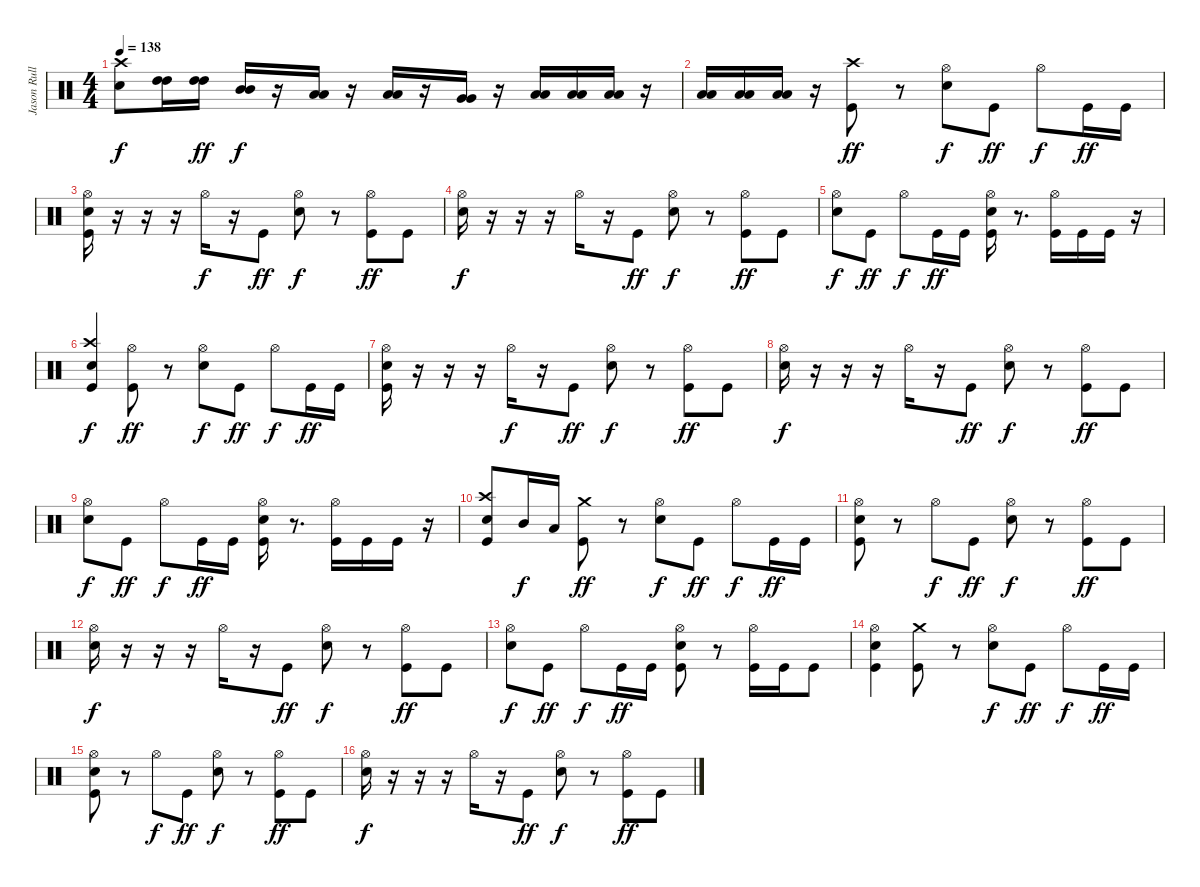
\track ("Jason Rullo" "Jason Rull") {instrument percussion}
\staff {score}
\articulation defaults
\ts (4 4)
\tempo 138
\clef neutral
\ks c
("Snare (hit) 2" "Crash high (hit)").8{dy f} ("High Tom (hit)" "High Tom (hit)").16 ("High Tom (hit)" "High Tom (hit)").16{dy ff} ("Mid Tom (hit)" "Mid Tom (hit)").16{dy f} r.16 ("Low Tom (hit)" "Low Tom (hit)").16 r.16 ("Low Tom (hit)" "Low Tom (hit)").16 r.16 ("Very Low Tom (hit)" "Very Low Tom (hit)").16 r.16 ("Low Tom (hit)" "Low Tom (hit)").16 ("Low Tom (hit)" "Low Tom (hit)").16 ("Low Tom (hit)" "Low Tom (hit)").16 r.16 |
("Low Tom (hit)" "Low Tom (hit)").16 ("Low Tom (hit)" "Low Tom (hit)").16 ("Low Tom (hit)" "Low Tom (hit)").16 r.16 ("Kick (hit)" "Crash high (hit)").8{dy ff} r.8 ("Snare (hit) 2" "Hi-Hat (open)").8{dy f} "Kick (hit)".8{dy ff} "Hi-Hat (open)".8{dy f} "Kick (hit)".16{dy ff} "Kick (hit)".16 |
("Kick (hit)" "Snare (hit) 2" "Hi-Hat (open)").16 r.16 r.16 r.16 "Hi-Hat (open)".16{dy f} r.16 "Kick (hit)".8{dy ff} ("Snare (hit) 2" "Hi-Hat (open)").8{dy f} r.8 ("Kick (hit)" "Hi-Hat (open)").8{dy ff} "Kick (hit)".8 |
("Snare (hit) 2" "Hi-Hat (open)").16{dy f} r.16 r.16 r.16 "Hi-Hat (open)".16 r.16 "Kick (hit)".8{dy ff} ("Snare (hit) 2" "Hi-Hat (open)").8{dy f} r.8 ("Kick (hit)" "Hi-Hat (open)").8{dy ff} "Kick (hit)".8 |
("Snare (hit) 2" "Hi-Hat (open)").8{dy f} "Kick (hit)".8{dy ff} "Hi-Hat (open)".8{dy f} "Kick (hit)".16{dy ff} "Kick (hit)".16 ("Kick (hit)" "Snare (hit) 2" "Hi-Hat (open)").16 r.8{d} ("Kick (hit)" "Hi-Hat (open)").16 "Kick (hit)".16 "Kick (hit)".16 r.16 |
("Kick (hit)" "Snare (hit) 2" "Crash high (hit)").4{dy f} ("Kick (hit)" "Hi-Hat (open)").8{dy ff} r.8 ("Snare (hit) 2" "Hi-Hat (open)").8{dy f} "Kick (hit)".8{dy ff} "Hi-Hat (open)".8{dy f} "Kick (hit)".16{dy ff} "Kick (hit)".16 |
("Kick (hit)" "Snare (hit) 2" "Hi-Hat (open)").16 r.16 r.16 r.16 "Hi-Hat (open)".16{dy f} r.16 "Kick (hit)".8{dy ff} ("Snare (hit) 2" "Hi-Hat (open)").8{dy f} r.8 ("Kick (hit)" "Hi-Hat (open)").8{dy ff} "Kick (hit)".8 |
("Snare (hit) 2" "Hi-Hat (open)").16{dy f} r.16 r.16 r.16 "Hi-Hat (open)".16 r.16 "Kick (hit)".8{dy ff} ("Snare (hit) 2" "Hi-Hat (open)").8{dy f} r.8 ("Kick (hit)" "Hi-Hat (open)").8{dy ff} "Kick (hit)".8 |
("Snare (hit) 2" "Hi-Hat (open)").8{dy f} "Kick (hit)".8{dy ff} "Hi-Hat (open)".8{dy f} "Kick (hit)".16{dy ff} "Kick (hit)".16 ("Kick (hit)" "Snare (hit) 2" "Hi-Hat (open)").16 r.8{d} ("Kick (hit)" "Hi-Hat (open)").16 "Kick (hit)".16 "Kick (hit)".16 r.16 |
("Kick (hit)" "Snare (hit) 2" "Crash high (hit)").8 "Mid Tom (hit)".16{dy f} "Low Tom (hit)".16 ("Kick (hit)" "Crash medium (hit)").8{dy ff} r.8 ("Snare (hit) 2" "Hi-Hat (open)").8{dy f} "Kick (hit)".8{dy ff} "Hi-Hat (open)".8{dy f} "Kick (hit)".16{dy ff} "Kick (hit)".16 |
("Kick (hit)" "Snare (hit) 2" "Hi-Hat (open)").8 r.8 "Hi-Hat (open)".8{dy f} "Kick (hit)".8{dy ff} ("Snare (hit) 2" "Hi-Hat (open)").8{dy f} r.8 ("Kick (hit)" "Hi-Hat (open)").8{dy ff} "Kick (hit)".8 |
("Snare (hit) 2" "Hi-Hat (open)").16{dy f} r.16 r.16 r.16 "Hi-Hat (open)".16 r.16 "Kick (hit)".8{dy ff} ("Snare (hit) 2" "Hi-Hat (open)").8{dy f} r.8 ("Kick (hit)" "Hi-Hat (open)").8{dy ff} "Kick (hit)".8 |
("Snare (hit) 2" "Hi-Hat (open)").8{dy f} "Kick (hit)".8{dy ff} "Hi-Hat (open)".8{dy f} "Kick (hit)".16{dy ff} "Kick (hit)".16 ("Kick (hit)" "Snare (hit) 2" "Hi-Hat (open)").8 r.8 ("Kick (hit)" "Hi-Hat (open)").16 "Kick (hit)".16 "Kick (hit)".8 |
("Kick (hit)" "Snare (hit) 2" "Hi-Hat (open)").4 ("Kick (hit)" "Crash medium (hit)").8 r.8 ("Snare (hit) 2" "Hi-Hat (open)").8{dy f} "Kick (hit)".8{dy ff} "Hi-Hat (open)".8{dy f} "Kick (hit)".16{dy ff} "Kick (hit)".16 |
("Kick (hit)" "Snare (hit) 2" "Hi-Hat (open)").8 r.8 "Hi-Hat (open)".8{dy f} "Kick (hit)".8{dy ff} ("Snare (hit) 2" "Hi-Hat (open)").8{dy f} r.8 ("Kick (hit)" "Hi-Hat (open)").8{dy ff} "Kick (hit)".8 |
("Snare (hit) 2" "Hi-Hat (open)").16{dy f} r.16 r.16 r.16 "Hi-Hat (open)".16 r.16 "Kick (hit)".8{dy ff} ("Snare (hit) 2" "Hi-Hat (open)").8{dy f} r.8 ("Kick (hit)" "Hi-Hat (open)").8{dy ff} "Kick (hit)".8
